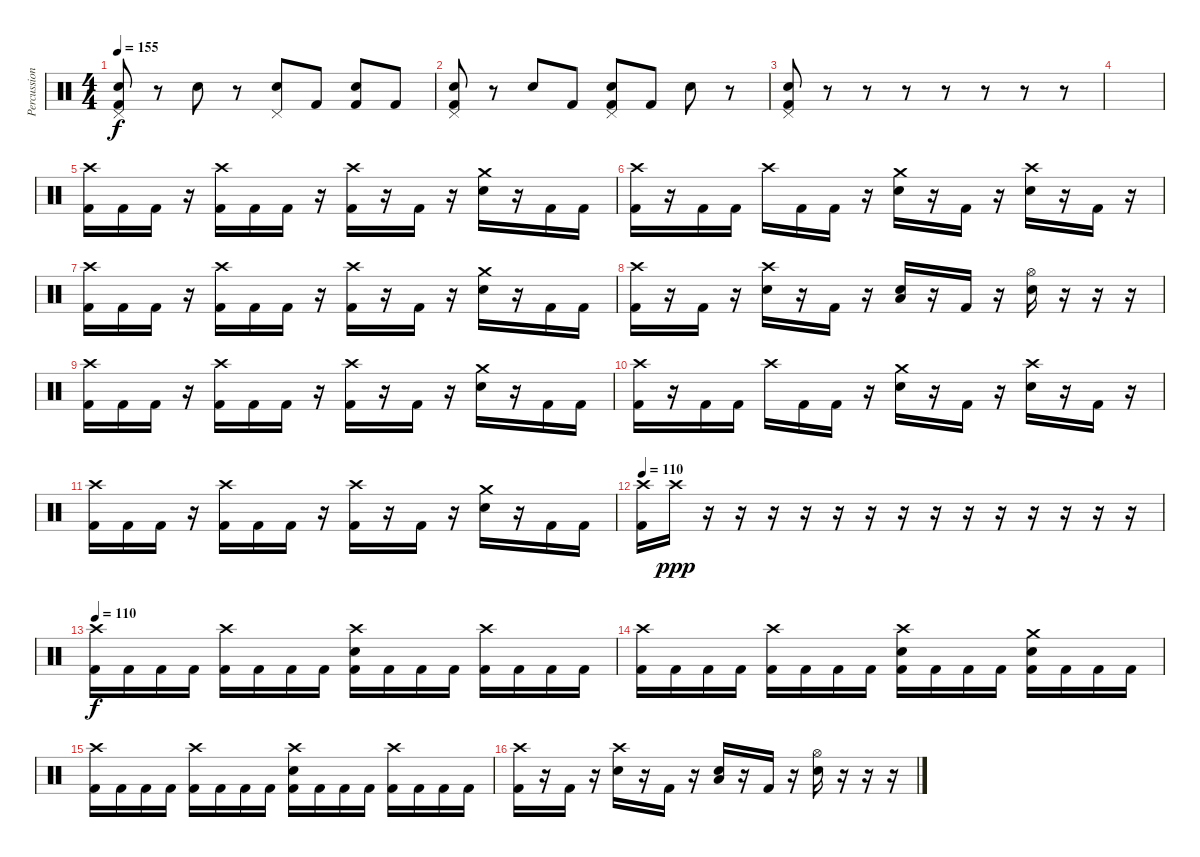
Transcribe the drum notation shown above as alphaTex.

\track ("Percussion" "Percussion") {instrument percussion}
\staff {score}
\articulation defaults
\ts (4 4)
\tempo 155
\clef neutral
\ks c
("Pedal Hi-Hat (hit)" "Snare (hit) 2" "Kick (hit) 2").8{dy f} r.8 "Snare (hit) 2".8 r.8 ("Pedal Hi-Hat (hit)" "Snare (hit) 2").8 "Kick (hit) 2".8 ("Snare (hit) 2" "Kick (hit) 2").8 "Kick (hit) 2".8 |
("Pedal Hi-Hat (hit)" "Snare (hit) 2" "Kick (hit) 2").8 r.8 "Snare (hit) 2".8 "Kick (hit) 2".8 ("Pedal Hi-Hat (hit)" "Snare (hit) 2" "Kick (hit) 2").8 "Kick (hit) 2".8 "Snare (hit) 2".8 r.8 |
("Pedal Hi-Hat (hit)" "Snare (hit) 2" "Kick (hit) 2").8 r.8 r.8 r.8 r.8 r.8 r.8 r.8 |
|
("Crash high (hit)" "Kick (hit) 2").16 "Kick (hit) 2".16 "Kick (hit) 2".16 r.16 ("Crash high (hit)" "Kick (hit) 2").16 "Kick (hit) 2".16 "Kick (hit) 2".16 r.16 ("Crash high (hit)" "Kick (hit) 2").16 r.16 "Kick (hit) 2".16 r.16 ("Crash medium (hit)" "Snare (hit) 2").16 r.16 "Kick (hit) 2".16 "Kick (hit) 2".16 |
("Crash high (hit)" "Kick (hit) 2").16 r.16 "Kick (hit) 2".16 "Kick (hit) 2".16 "Crash high (hit)".16 "Kick (hit) 2".16 "Kick (hit) 2".16 r.16 ("Crash medium (hit)" "Snare (hit) 2").16 r.16 "Kick (hit) 2".16 r.16 ("Crash high (hit)" "Snare (hit) 2").16 r.16 "Kick (hit) 2".16 r.16 |
("Crash high (hit)" "Kick (hit) 2").16 "Kick (hit) 2".16 "Kick (hit) 2".16 r.16 ("Crash high (hit)" "Kick (hit) 2").16 "Kick (hit) 2".16 "Kick (hit) 2".16 r.16 ("Crash high (hit)" "Kick (hit) 2").16 r.16 "Kick (hit) 2".16 r.16 ("Crash medium (hit)" "Snare (hit) 2").16 r.16 "Kick (hit) 2".16 "Kick (hit) 2".16 |
("Crash high (hit)" "Kick (hit) 2").16 r.16 "Kick (hit) 2".16 r.16 ("Crash high (hit)" "Snare (hit) 2").16 r.16 "Kick (hit) 2".16 r.16 ("Low Floor Tom (hit)" "Snare (hit) 2").16 r.16 "Kick (hit) 2".16 r.16 ("Hi-Hat (open)" "Snare (hit) 2").16 r.16 r.16 r.16 |
("Crash high (hit)" "Kick (hit) 2").16 "Kick (hit) 2".16 "Kick (hit) 2".16 r.16 ("Crash high (hit)" "Kick (hit) 2").16 "Kick (hit) 2".16 "Kick (hit) 2".16 r.16 ("Crash high (hit)" "Kick (hit) 2").16 r.16 "Kick (hit) 2".16 r.16 ("Crash medium (hit)" "Snare (hit) 2").16 r.16 "Kick (hit) 2".16 "Kick (hit) 2".16 |
("Crash high (hit)" "Kick (hit) 2").16 r.16 "Kick (hit) 2".16 "Kick (hit) 2".16 "Crash high (hit)".16 "Kick (hit) 2".16 "Kick (hit) 2".16 r.16 ("Crash medium (hit)" "Snare (hit) 2").16 r.16 "Kick (hit) 2".16 r.16 ("Crash high (hit)" "Snare (hit) 2").16 r.16 "Kick (hit) 2".16 r.16 |
("Crash high (hit)" "Kick (hit) 2").16 "Kick (hit) 2".16 "Kick (hit) 2".16 r.16 ("Crash high (hit)" "Kick (hit) 2").16 "Kick (hit) 2".16 "Kick (hit) 2".16 r.16 ("Crash high (hit)" "Kick (hit) 2").16 r.16 "Kick (hit) 2".16 r.16 ("Crash medium (hit)" "Snare (hit) 2").16 r.16 "Kick (hit) 2".16 "Kick (hit) 2".16 |
\tempo 110
("Crash high (hit)" "Kick (hit) 2").16 "Crash high (hit)".16{dy ppp} r.16 r.16 r.16 r.16 r.16 r.16 r.16 r.16 r.16 r.16 r.16 r.16 r.16 r.16 |
\tempo 110
("Crash high (hit)" "Kick (hit) 2").16{dy f} "Kick (hit) 2".16 "Kick (hit) 2".16 "Kick (hit) 2".16 ("Crash high (hit)" "Kick (hit) 2").16 "Kick (hit) 2".16 "Kick (hit) 2".16 "Kick (hit) 2".16 ("Crash high (hit)" "Snare (hit) 2" "Kick (hit) 2").16 "Kick (hit) 2".16 "Kick (hit) 2".16 "Kick (hit) 2".16 ("Crash high (hit)" "Kick (hit) 2").16 "Kick (hit) 2".16 "Kick (hit) 2".16 "Kick (hit) 2".16 |
("Crash high (hit)" "Kick (hit) 2").16 "Kick (hit) 2".16 "Kick (hit) 2".16 "Kick (hit) 2".16 ("Crash high (hit)" "Kick (hit) 2").16 "Kick (hit) 2".16 "Kick (hit) 2".16 "Kick (hit) 2".16 ("Crash high (hit)" "Snare (hit) 2" "Kick (hit) 2").16 "Kick (hit) 2".16 "Kick (hit) 2".16 "Kick (hit) 2".16 ("Crash medium (hit)" "Snare (hit) 2" "Kick (hit) 2").16 "Kick (hit) 2".16 "Kick (hit) 2".16 "Kick (hit) 2".16 |
("Crash high (hit)" "Kick (hit) 2").16 "Kick (hit) 2".16 "Kick (hit) 2".16 "Kick (hit) 2".16 ("Crash high (hit)" "Kick (hit) 2").16 "Kick (hit) 2".16 "Kick (hit) 2".16 "Kick (hit) 2".16 ("Crash high (hit)" "Snare (hit) 2" "Kick (hit) 2").16 "Kick (hit) 2".16 "Kick (hit) 2".16 "Kick (hit) 2".16 ("Crash high (hit)" "Kick (hit) 2").16 "Kick (hit) 2".16 "Kick (hit) 2".16 "Kick (hit) 2".16 |
("Crash high (hit)" "Kick (hit) 2").16 r.16 "Kick (hit) 2".16 r.16 ("Crash high (hit)" "Snare (hit) 2").16 r.16 "Kick (hit) 2".16 r.16 ("Low Floor Tom (hit)" "Snare (hit) 2").16 r.16 "Kick (hit) 2".16 r.16 ("Hi-Hat (open)" "Snare (hit) 2").16 r.16 r.16 r.16
